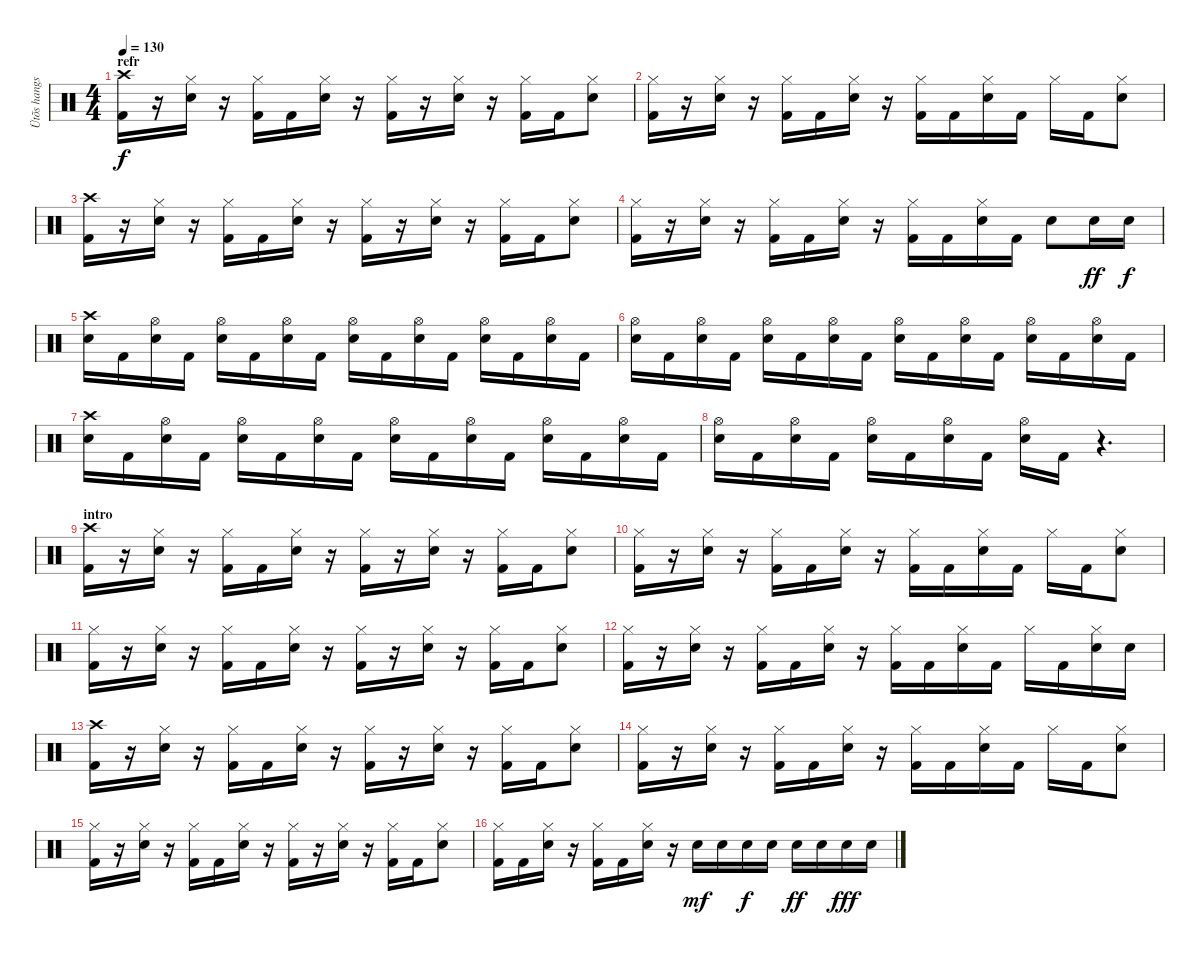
\track ("Ütõs hangszer" "Ütõs hangs") {instrument percussion}
\staff {score}
\articulation defaults
\ts (4 4)
\section ("" "refr")
\tempo 130
\clef neutral
\ks c
("Crash high (hit)" "Kick (hit) 2").16{dy f} r.16 ("Hi-Hat (closed)" "Snare (hit) 2").16 r.16 ("Hi-Hat (closed)" "Kick (hit) 2").16 "Kick (hit) 2".16 ("Hi-Hat (closed)" "Snare (hit) 2").16 r.16 ("Hi-Hat (closed)" "Kick (hit) 2").16 r.16 ("Hi-Hat (closed)" "Snare (hit) 2").16 r.16 ("Hi-Hat (closed)" "Kick (hit) 2").16 "Kick (hit) 2".16 ("Hi-Hat (closed)" "Snare (hit) 2").8 |
("Hi-Hat (closed)" "Kick (hit) 2").16 r.16 ("Hi-Hat (closed)" "Snare (hit) 2").16 r.16 ("Hi-Hat (closed)" "Kick (hit) 2").16 "Kick (hit) 2".16 ("Hi-Hat (closed)" "Snare (hit) 2").16 r.16 ("Hi-Hat (closed)" "Kick (hit) 2").16 "Kick (hit) 2".16 ("Hi-Hat (closed)" "Snare (hit) 2").16 "Kick (hit) 2".16 "Hi-Hat (closed)".16 "Kick (hit) 2".16 ("Hi-Hat (closed)" "Snare (hit) 2").8 |
("Crash high (hit)" "Kick (hit) 2").16 r.16 ("Hi-Hat (closed)" "Snare (hit) 2").16 r.16 ("Hi-Hat (closed)" "Kick (hit) 2").16 "Kick (hit) 2".16 ("Hi-Hat (closed)" "Snare (hit) 2").16 r.16 ("Hi-Hat (closed)" "Kick (hit) 2").16 r.16 ("Hi-Hat (closed)" "Snare (hit) 2").16 r.16 ("Hi-Hat (closed)" "Kick (hit) 2").16 "Kick (hit) 2".16 ("Hi-Hat (closed)" "Snare (hit) 2").8 |
("Hi-Hat (closed)" "Kick (hit) 2").16 r.16 ("Hi-Hat (closed)" "Snare (hit) 2").16 r.16 ("Hi-Hat (closed)" "Kick (hit) 2").16 "Kick (hit) 2".16 ("Hi-Hat (closed)" "Snare (hit) 2").16 r.16 ("Hi-Hat (closed)" "Kick (hit) 2").16 "Kick (hit) 2".16 ("Hi-Hat (closed)" "Snare (hit) 2").16 "Kick (hit) 2".16 "Snare (hit) 2".8 "Snare (hit) 2".16{dy ff} "Snare (hit) 2".16{dy f} |
("Crash high (hit)" "Snare (hit) 2").16 "Kick (hit) 2".16 ("Hi-Hat (open)" "Snare (hit) 2").16 "Kick (hit) 2".16 ("Hi-Hat (open)" "Snare (hit) 2").16 "Kick (hit) 2".16 ("Hi-Hat (open)" "Snare (hit) 2").16 "Kick (hit) 2".16 ("Hi-Hat (open)" "Snare (hit) 2").16 "Kick (hit) 2".16 ("Hi-Hat (open)" "Snare (hit) 2").16 "Kick (hit) 2".16 ("Hi-Hat (open)" "Snare (hit) 2").16 "Kick (hit) 2".16 ("Hi-Hat (open)" "Snare (hit) 2").16 "Kick (hit) 2".16 |
("Hi-Hat (open)" "Snare (hit) 2").16 "Kick (hit) 2".16 ("Hi-Hat (open)" "Snare (hit) 2").16 "Kick (hit) 2".16 ("Hi-Hat (open)" "Snare (hit) 2").16 "Kick (hit) 2".16 ("Hi-Hat (open)" "Snare (hit) 2").16 "Kick (hit) 2".16 ("Hi-Hat (open)" "Snare (hit) 2").16 "Kick (hit) 2".16 ("Hi-Hat (open)" "Snare (hit) 2").16 "Kick (hit) 2".16 ("Hi-Hat (open)" "Snare (hit) 2").16 "Kick (hit) 2".16 ("Hi-Hat (open)" "Snare (hit) 2").16 "Kick (hit) 2".16 |
("Crash high (hit)" "Snare (hit) 2").16 "Kick (hit) 2".16 ("Hi-Hat (open)" "Snare (hit) 2").16 "Kick (hit) 2".16 ("Hi-Hat (open)" "Snare (hit) 2").16 "Kick (hit) 2".16 ("Hi-Hat (open)" "Snare (hit) 2").16 "Kick (hit) 2".16 ("Hi-Hat (open)" "Snare (hit) 2").16 "Kick (hit) 2".16 ("Hi-Hat (open)" "Snare (hit) 2").16 "Kick (hit) 2".16 ("Hi-Hat (open)" "Snare (hit) 2").16 "Kick (hit) 2".16 ("Hi-Hat (open)" "Snare (hit) 2").16 "Kick (hit) 2".16 |
("Hi-Hat (open)" "Snare (hit) 2").16 "Kick (hit) 2".16 ("Hi-Hat (open)" "Snare (hit) 2").16 "Kick (hit) 2".16 ("Hi-Hat (open)" "Snare (hit) 2").16 "Kick (hit) 2".16 ("Hi-Hat (open)" "Snare (hit) 2").16 "Kick (hit) 2".16 ("Hi-Hat (open)" "Snare (hit) 2").16 "Kick (hit) 2".16 r.4{d} |
\section ("" "intro")
("Crash high (hit)" "Kick (hit) 2").16 r.16 ("Hi-Hat (closed)" "Snare (hit) 2").16 r.16 ("Hi-Hat (closed)" "Kick (hit) 2").16 "Kick (hit) 2".16 ("Hi-Hat (closed)" "Snare (hit) 2").16 r.16 ("Hi-Hat (closed)" "Kick (hit) 2").16 r.16 ("Hi-Hat (closed)" "Snare (hit) 2").16 r.16 ("Hi-Hat (closed)" "Kick (hit) 2").16 "Kick (hit) 2".16 ("Hi-Hat (closed)" "Snare (hit) 2").8 |
("Hi-Hat (closed)" "Kick (hit) 2").16 r.16 ("Hi-Hat (closed)" "Snare (hit) 2").16 r.16 ("Hi-Hat (closed)" "Kick (hit) 2").16 "Kick (hit) 2".16 ("Hi-Hat (closed)" "Snare (hit) 2").16 r.16 ("Hi-Hat (closed)" "Kick (hit) 2").16 "Kick (hit) 2".16 ("Hi-Hat (closed)" "Snare (hit) 2").16 "Kick (hit) 2".16 "Hi-Hat (closed)".16 "Kick (hit) 2".16 ("Hi-Hat (closed)" "Snare (hit) 2").8 |
("Hi-Hat (closed)" "Kick (hit) 2").16 r.16 ("Hi-Hat (closed)" "Snare (hit) 2").16 r.16 ("Hi-Hat (closed)" "Kick (hit) 2").16 "Kick (hit) 2".16 ("Hi-Hat (closed)" "Snare (hit) 2").16 r.16 ("Hi-Hat (closed)" "Kick (hit) 2").16 r.16 ("Hi-Hat (closed)" "Snare (hit) 2").16 r.16 ("Hi-Hat (closed)" "Kick (hit) 2").16 "Kick (hit) 2".16 ("Hi-Hat (closed)" "Snare (hit) 2").8 |
("Hi-Hat (closed)" "Kick (hit) 2").16 r.16 ("Hi-Hat (closed)" "Snare (hit) 2").16 r.16 ("Hi-Hat (closed)" "Kick (hit) 2").16 "Kick (hit) 2".16 ("Hi-Hat (closed)" "Snare (hit) 2").16 r.16 ("Hi-Hat (closed)" "Kick (hit) 2").16 "Kick (hit) 2".16 ("Hi-Hat (closed)" "Snare (hit) 2").16 "Kick (hit) 2".16 "Hi-Hat (closed)".16 "Kick (hit) 2".16 ("Hi-Hat (closed)" "Snare (hit) 2").16 "Snare (hit) 2".16 |
("Crash high (hit)" "Kick (hit) 2").16 r.16 ("Hi-Hat (closed)" "Snare (hit) 2").16 r.16 ("Hi-Hat (closed)" "Kick (hit) 2").16 "Kick (hit) 2".16 ("Hi-Hat (closed)" "Snare (hit) 2").16 r.16 ("Hi-Hat (closed)" "Kick (hit) 2").16 r.16 ("Hi-Hat (closed)" "Snare (hit) 2").16 r.16 ("Hi-Hat (closed)" "Kick (hit) 2").16 "Kick (hit) 2".16 ("Hi-Hat (closed)" "Snare (hit) 2").8 |
("Hi-Hat (closed)" "Kick (hit) 2").16 r.16 ("Hi-Hat (closed)" "Snare (hit) 2").16 r.16 ("Hi-Hat (closed)" "Kick (hit) 2").16 "Kick (hit) 2".16 ("Hi-Hat (closed)" "Snare (hit) 2").16 r.16 ("Hi-Hat (closed)" "Kick (hit) 2").16 "Kick (hit) 2".16 ("Hi-Hat (closed)" "Snare (hit) 2").16 "Kick (hit) 2".16 "Hi-Hat (closed)".16 "Kick (hit) 2".16 ("Hi-Hat (closed)" "Snare (hit) 2").8 |
("Hi-Hat (closed)" "Kick (hit) 2").16 r.16 ("Hi-Hat (closed)" "Snare (hit) 2").16 r.16 ("Hi-Hat (closed)" "Kick (hit) 2").16 "Kick (hit) 2".16 ("Hi-Hat (closed)" "Snare (hit) 2").16 r.16 ("Hi-Hat (closed)" "Kick (hit) 2").16 r.16 ("Hi-Hat (closed)" "Snare (hit) 2").16 r.16 ("Hi-Hat (closed)" "Kick (hit) 2").16 "Kick (hit) 2".16 ("Hi-Hat (closed)" "Snare (hit) 2").8 |
("Hi-Hat (closed)" "Kick (hit) 2").16 "Kick (hit) 2".16 ("Hi-Hat (closed)" "Snare (hit) 2").16 r.16 ("Hi-Hat (closed)" "Kick (hit) 2").16 "Kick (hit) 2".16 ("Hi-Hat (closed)" "Snare (hit) 2").16 r.16 "Snare (hit) 2".16{dy mf} "Snare (hit) 2".16 "Snare (hit) 2".16{dy f} "Snare (hit) 2".16 "Snare (hit) 2".16{dy ff} "Snare (hit) 2".16 "Snare (hit) 2".16{dy fff} "Snare (hit) 2".16
